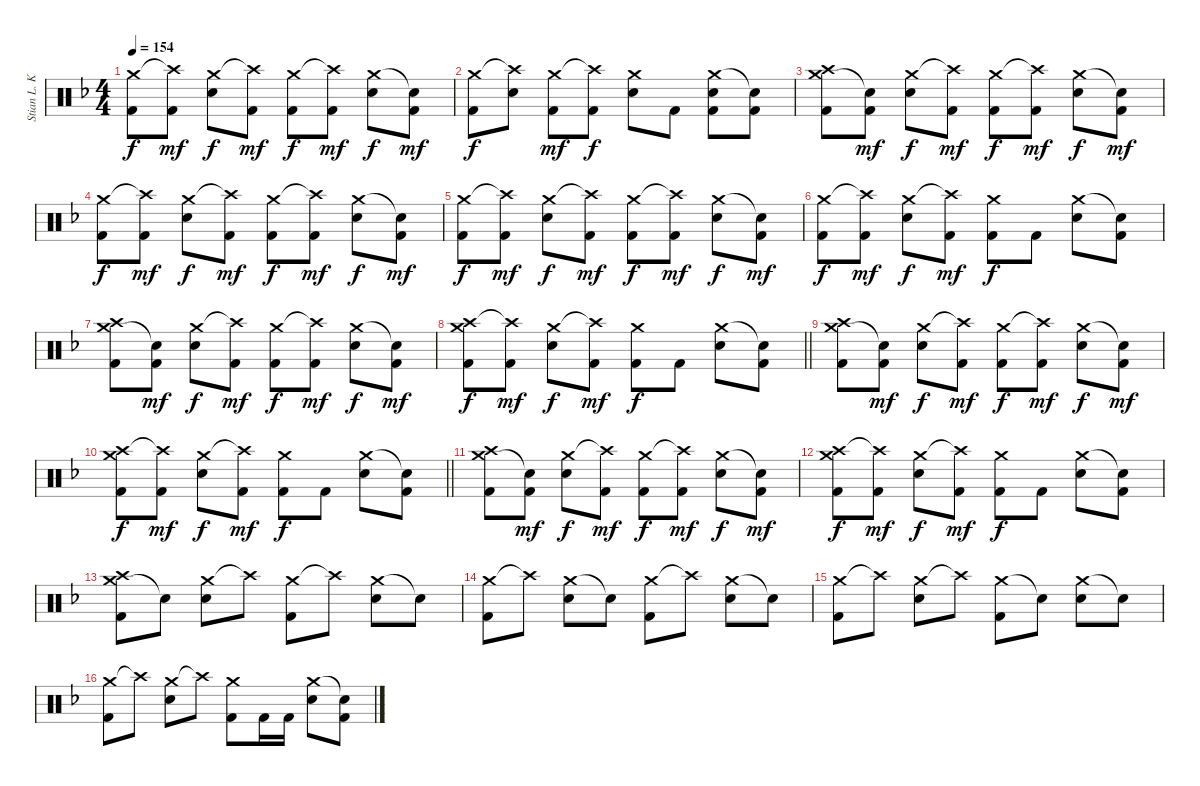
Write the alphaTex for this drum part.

\track ("Stian L. Kristoffersen" "Stian L. K") {instrument percussion}
\staff {score}
\articulation defaults
\ts (4 4)
\tempo 154
\clef neutral
\ks f
("Crash medium (hit)" "Kick (hit) 2").8{dy f} ("Crash high (hit)"{t} "Kick (hit) 2").8{dy mf} ("Crash medium (hit)" "Snare (hit) 2").8{dy f} ("Crash high (hit)"{t} "Kick (hit) 2").8{dy mf} ("Crash medium (hit)" "Kick (hit) 2").8{dy f} ("Crash high (hit)"{t} "Kick (hit) 2").8{dy mf} ("Crash medium (hit)" "Snare (hit) 2").8{dy f} ("Snare (hit)"{t} "Kick (hit) 2").8{dy mf} |
("Crash medium (hit)" "Kick (hit) 2").8{dy f} ("Crash high (hit)"{t} "Snare (hit) 2").8 ("Crash medium (hit)" "Kick (hit) 2").8{dy mf} ("Crash high (hit)"{t} "Kick (hit) 2").8{dy f} ("Crash medium (hit)" "Snare (hit) 2").8 "Kick (hit) 2".8 ("Crash medium (hit)" "Snare (hit) 2" "Kick (hit) 2").8 ("Snare (hit)"{t} "Kick (hit) 2").8 |
("Crash medium (hit)" "Crash high (hit)" "Kick (hit) 2").8 ("Snare (hit)"{t} "Kick (hit) 2").8{dy mf} ("Crash medium (hit)" "Snare (hit) 2").8{dy f} ("Crash high (hit)"{t} "Kick (hit) 2").8{dy mf} ("Crash medium (hit)" "Kick (hit) 2").8{dy f} ("Crash high (hit)"{t} "Kick (hit) 2").8{dy mf} ("Crash medium (hit)" "Snare (hit) 2").8{dy f} ("Snare (hit)"{t} "Kick (hit) 2").8{dy mf} |
("Crash medium (hit)" "Kick (hit) 2").8{dy f} ("Crash high (hit)"{t} "Kick (hit) 2").8{dy mf} ("Crash medium (hit)" "Snare (hit) 2").8{dy f} ("Crash high (hit)"{t} "Kick (hit) 2").8{dy mf} ("Crash medium (hit)" "Kick (hit) 2").8{dy f} ("Crash high (hit)"{t} "Kick (hit) 2").8{dy mf} ("Crash medium (hit)" "Snare (hit) 2").8{dy f} ("Snare (hit)"{t} "Kick (hit) 2").8{dy mf} |
("Crash medium (hit)" "Kick (hit) 2").8{dy f} ("Crash high (hit)"{t} "Kick (hit) 2").8{dy mf} ("Crash medium (hit)" "Snare (hit) 2").8{dy f} ("Crash high (hit)"{t} "Kick (hit) 2").8{dy mf} ("Crash medium (hit)" "Kick (hit) 2").8{dy f} ("Crash high (hit)"{t} "Kick (hit) 2").8{dy mf} ("Crash medium (hit)" "Snare (hit) 2").8{dy f} ("Snare (hit)"{t} "Kick (hit) 2").8{dy mf} |
("Crash medium (hit)" "Kick (hit) 2").8{dy f} ("Crash high (hit)"{t} "Kick (hit) 2").8{dy mf} ("Crash medium (hit)" "Snare (hit) 2").8{dy f} ("Crash high (hit)"{t} "Kick (hit) 2").8{dy mf} ("Crash medium (hit)" "Kick (hit) 2").8{dy f} "Kick (hit) 2".8 ("Crash medium (hit)" "Snare (hit) 2").8 ("Snare (hit)"{t} "Kick (hit) 2").8 |
("Crash medium (hit)" "Crash high (hit)" "Kick (hit) 2").8 ("Snare (hit)"{t} "Kick (hit) 2").8{dy mf} ("Crash medium (hit)" "Snare (hit) 2").8{dy f} ("Crash high (hit)"{t} "Kick (hit) 2").8{dy mf} ("Crash medium (hit)" "Kick (hit) 2").8{dy f} ("Crash high (hit)"{t} "Kick (hit) 2").8{dy mf} ("Crash medium (hit)" "Snare (hit) 2").8{dy f} ("Snare (hit)"{t} "Kick (hit) 2").8{dy mf} |
\barLineRight lightlight
("Crash high (hit)" "Crash medium (hit)" "Kick (hit) 2").8{dy f} ("Crash high (hit)"{t} "Kick (hit) 2").8{dy mf} ("Crash medium (hit)" "Snare (hit) 2").8{dy f} ("Crash high (hit)"{t} "Kick (hit) 2").8{dy mf} ("Crash medium (hit)" "Kick (hit) 2").8{dy f} "Kick (hit) 2".8 ("Crash medium (hit)" "Snare (hit) 2").8 ("Snare (hit)"{t} "Kick (hit) 2").8 |
("Crash medium (hit)" "Crash high (hit)" "Kick (hit) 2").8 ("Snare (hit)"{t} "Kick (hit) 2").8{dy mf} ("Crash medium (hit)" "Snare (hit) 2").8{dy f} ("Crash high (hit)"{t} "Kick (hit) 2").8{dy mf} ("Crash medium (hit)" "Kick (hit) 2").8{dy f} ("Crash high (hit)"{t} "Kick (hit) 2").8{dy mf} ("Crash medium (hit)" "Snare (hit) 2").8{dy f} ("Snare (hit)"{t} "Kick (hit) 2").8{dy mf} |
\barLineRight lightlight
("Crash high (hit)" "Crash medium (hit)" "Kick (hit) 2").8{dy f} ("Crash high (hit)"{t} "Kick (hit) 2").8{dy mf} ("Crash medium (hit)" "Snare (hit) 2").8{dy f} ("Crash high (hit)"{t} "Kick (hit) 2").8{dy mf} ("Crash medium (hit)" "Kick (hit) 2").8{dy f} "Kick (hit) 2".8 ("Crash medium (hit)" "Snare (hit) 2").8 ("Snare (hit)"{t} "Kick (hit) 2").8 |
("Crash medium (hit)" "Crash high (hit)" "Kick (hit) 2").8 ("Snare (hit)"{t} "Kick (hit) 2").8{dy mf} ("Crash medium (hit)" "Snare (hit) 2").8{dy f} ("Crash high (hit)"{t} "Kick (hit) 2").8{dy mf} ("Crash medium (hit)" "Kick (hit) 2").8{dy f} ("Crash high (hit)"{t} "Kick (hit) 2").8{dy mf} ("Crash medium (hit)" "Snare (hit) 2").8{dy f} ("Snare (hit)"{t} "Kick (hit) 2").8{dy mf} |
("Crash high (hit)" "Crash medium (hit)" "Kick (hit) 2").8{dy f} ("Crash high (hit)"{t} "Kick (hit) 2").8{dy mf} ("Crash medium (hit)" "Snare (hit) 2").8{dy f} ("Crash high (hit)"{t} "Kick (hit) 2").8{dy mf} ("Crash medium (hit)" "Kick (hit) 2").8{dy f} "Kick (hit) 2".8 ("Crash medium (hit)" "Snare (hit) 2").8 ("Snare (hit)"{t} "Kick (hit) 2").8 |
("Crash medium (hit)" "Crash high (hit)" "Kick (hit) 2").8 "Snare (hit)"{t}.8 ("Crash medium (hit)" "Snare (hit) 2").8 "Crash high (hit)"{t}.8 ("Crash medium (hit)" "Kick (hit) 2").8 "Crash high (hit)"{t}.8 ("Crash medium (hit)" "Snare (hit) 2").8 "Snare (hit)"{t}.8 |
("Crash medium (hit)" "Kick (hit) 2").8 "Crash high (hit)"{t}.8 ("Crash medium (hit)" "Snare (hit) 2").8 "Snare (hit)"{t}.8 ("Crash medium (hit)" "Kick (hit) 2").8 "Crash high (hit)"{t}.8 ("Crash medium (hit)" "Snare (hit) 2").8 "Snare (hit)"{t}.8 |
("Crash medium (hit)" "Kick (hit) 2").8 "Crash high (hit)"{t}.8 ("Crash medium (hit)" "Snare (hit) 2").8 "Crash high (hit)"{t}.8 ("Crash medium (hit)" "Kick (hit) 2").8 "Snare (hit)"{t}.8 ("Crash medium (hit)" "Snare (hit) 2").8 "Snare (hit)"{t}.8 |
("Crash medium (hit)" "Kick (hit) 2").8 "Crash high (hit)"{t}.8 ("Crash medium (hit)" "Snare (hit) 2").8 "Crash high (hit)"{t}.8 ("Crash medium (hit)" "Kick (hit) 2").8 "Kick (hit) 2".16 "Kick (hit) 2".16 ("Crash medium (hit)" "Snare (hit) 2").8 ("Snare (hit)"{t} "Kick (hit) 2").8
